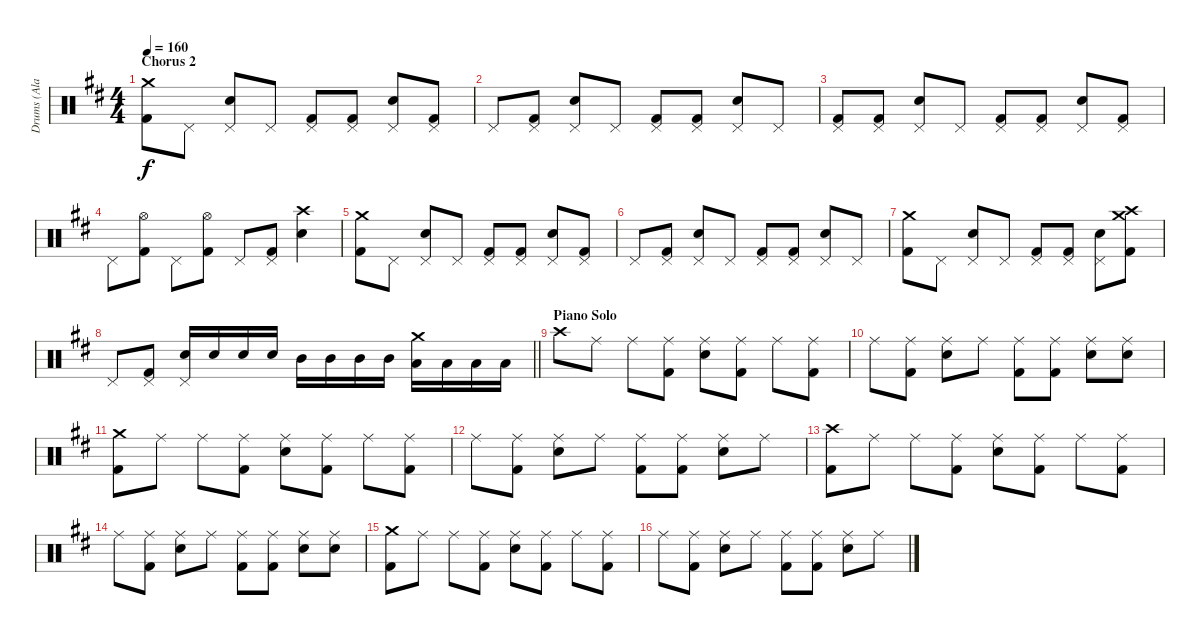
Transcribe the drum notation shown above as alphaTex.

\track ("Drums (Ala Burns)" "Drums (Ala") {instrument percussion}
\staff {score}
\articulation defaults
\ts (4 4)
\section ("" "Chorus 2")
\tempo 160
\clef neutral
\ks d
("Crash medium (hit)" "Kick (hit) 2").8{dy f} "Pedal Hi-Hat (hit)".8 ("Pedal Hi-Hat (hit)" "Snare (hit) 2").8 "Pedal Hi-Hat (hit)".8 ("Pedal Hi-Hat (hit)" "Kick (hit) 2").8 ("Pedal Hi-Hat (hit)" "Kick (hit) 2").8 ("Pedal Hi-Hat (hit)" "Snare (hit) 2").8 ("Pedal Hi-Hat (hit)" "Kick (hit) 2").8 |
"Pedal Hi-Hat (hit)".8 ("Pedal Hi-Hat (hit)" "Kick (hit) 2").8 ("Pedal Hi-Hat (hit)" "Snare (hit) 2").8 "Pedal Hi-Hat (hit)".8 ("Pedal Hi-Hat (hit)" "Kick (hit) 2").8 ("Pedal Hi-Hat (hit)" "Kick (hit) 2").8 ("Pedal Hi-Hat (hit)" "Snare (hit) 2").8 "Pedal Hi-Hat (hit)".8 |
("Pedal Hi-Hat (hit)" "Kick (hit) 2").8 ("Pedal Hi-Hat (hit)" "Kick (hit) 2").8 ("Pedal Hi-Hat (hit)" "Snare (hit) 2").8 "Pedal Hi-Hat (hit)".8 ("Pedal Hi-Hat (hit)" "Kick (hit) 2").8 ("Pedal Hi-Hat (hit)" "Kick (hit) 2").8 ("Pedal Hi-Hat (hit)" "Snare (hit) 2").8 ("Pedal Hi-Hat (hit)" "Kick (hit) 2").8 |
"Pedal Hi-Hat (hit)".8 ("Hi-Hat (open)" "Kick (hit) 2").8 "Pedal Hi-Hat (hit)".8 ("Hi-Hat (open)" "Kick (hit) 2").8 "Pedal Hi-Hat (hit)".8 ("Pedal Hi-Hat (hit)" "Kick (hit) 2").8 ("Crash high (hit)" "Snare (hit) 2").4 |
("Crash medium (hit)" "Kick (hit) 2").8 "Pedal Hi-Hat (hit)".8 ("Pedal Hi-Hat (hit)" "Snare (hit) 2").8 "Pedal Hi-Hat (hit)".8 ("Pedal Hi-Hat (hit)" "Kick (hit) 2").8 ("Pedal Hi-Hat (hit)" "Kick (hit) 2").8 ("Pedal Hi-Hat (hit)" "Snare (hit) 2").8 ("Pedal Hi-Hat (hit)" "Kick (hit) 2").8 |
"Pedal Hi-Hat (hit)".8 ("Pedal Hi-Hat (hit)" "Kick (hit) 2").8 ("Pedal Hi-Hat (hit)" "Snare (hit) 2").8 "Pedal Hi-Hat (hit)".8 ("Pedal Hi-Hat (hit)" "Kick (hit) 2").8 ("Pedal Hi-Hat (hit)" "Kick (hit) 2").8 ("Pedal Hi-Hat (hit)" "Snare (hit) 2").8 "Pedal Hi-Hat (hit)".8 |
("Crash medium (hit)" "Kick (hit) 2").8 "Pedal Hi-Hat (hit)".8 ("Pedal Hi-Hat (hit)" "Snare (hit) 2").8 "Pedal Hi-Hat (hit)".8 ("Pedal Hi-Hat (hit)" "Kick (hit) 2").8 ("Pedal Hi-Hat (hit)" "Kick (hit) 2").8 ("Pedal Hi-Hat (hit)" "Snare (hit) 2").8 ("Crash medium (hit)" "Crash high (hit)" "Kick (hit) 2").8 |
\barLineRight lightlight "Pedal Hi-Hat (hit)".8
("Pedal Hi-Hat (hit)" "Kick (hit) 2").8 ("Snare (hit) 2" "Pedal Hi-Hat (hit)").16 "Snare (hit) 2".16 "Snare (hit) 2".16 "Snare (hit) 2".16 "Mid Tom (hit)".16 "Mid Tom (hit)".16 "Mid Tom (hit)".16 "Mid Tom (hit)".16 ("Crash medium (hit)" "Low Tom (hit)").16 "Low Tom (hit)".16 "Low Tom (hit)".16 "Low Tom (hit)".16 |
\section ("" "Piano Solo")
"Crash high (hit)".8 "Ride (middle)".8 "Ride (middle)".8 ("Ride (middle)" "Kick (hit) 2").8 ("Ride (middle)" "Snare (hit) 2").8 ("Ride (middle)" "Kick (hit) 2").8 "Ride (middle)".8 ("Ride (middle)" "Kick (hit) 2").8 |
"Ride (middle)".8 ("Ride (middle)" "Kick (hit) 2").8 ("Ride (middle)" "Snare (hit) 2").8 "Ride (middle)".8 ("Ride (middle)" "Kick (hit) 2").8 ("Ride (middle)" "Kick (hit) 2").8 ("Ride (middle)" "Snare (hit) 2").8 ("Ride (middle)" "Snare (hit) 2").8 |
("Crash medium (hit)" "Kick (hit) 2").8 "Ride (middle)".8 "Ride (middle)".8 ("Ride (middle)" "Kick (hit) 2").8 ("Ride (middle)" "Snare (hit) 2").8 ("Ride (middle)" "Kick (hit) 2").8 "Ride (middle)".8 ("Ride (middle)" "Kick (hit) 2").8 |
"Ride (middle)".8 ("Ride (middle)" "Kick (hit) 2").8 ("Ride (middle)" "Snare (hit) 2").8 "Ride (middle)".8 ("Ride (middle)" "Kick (hit) 2").8 ("Ride (middle)" "Kick (hit) 2").8 ("Ride (middle)" "Snare (hit) 2").8 "Ride (middle)".8 |
("Crash high (hit)" "Kick (hit) 2").8 "Ride (middle)".8 "Ride (middle)".8 ("Ride (middle)" "Kick (hit) 2").8 ("Ride (middle)" "Snare (hit) 2").8 ("Ride (middle)" "Kick (hit) 2").8 "Ride (middle)".8 ("Ride (middle)" "Kick (hit) 2").8 |
"Ride (middle)".8 ("Ride (middle)" "Kick (hit) 2").8 ("Ride (middle)" "Snare (hit) 2").8 "Ride (middle)".8 ("Ride (middle)" "Kick (hit) 2").8 ("Ride (middle)" "Kick (hit) 2").8 ("Ride (middle)" "Snare (hit) 2").8 ("Ride (middle)" "Snare (hit) 2").8 |
("Crash medium (hit)" "Kick (hit) 2").8 "Ride (middle)".8 "Ride (middle)".8 ("Ride (middle)" "Kick (hit) 2").8 ("Ride (middle)" "Snare (hit) 2").8 ("Ride (middle)" "Kick (hit) 2").8 "Ride (middle)".8 ("Ride (middle)" "Kick (hit) 2").8 |
"Ride (middle)".8 ("Ride (middle)" "Kick (hit) 2").8 ("Ride (middle)" "Snare (hit) 2").8 "Ride (middle)".8 ("Ride (middle)" "Kick (hit) 2").8 ("Ride (middle)" "Kick (hit) 2").8 ("Ride (middle)" "Snare (hit) 2").8 "Ride (middle)".8
